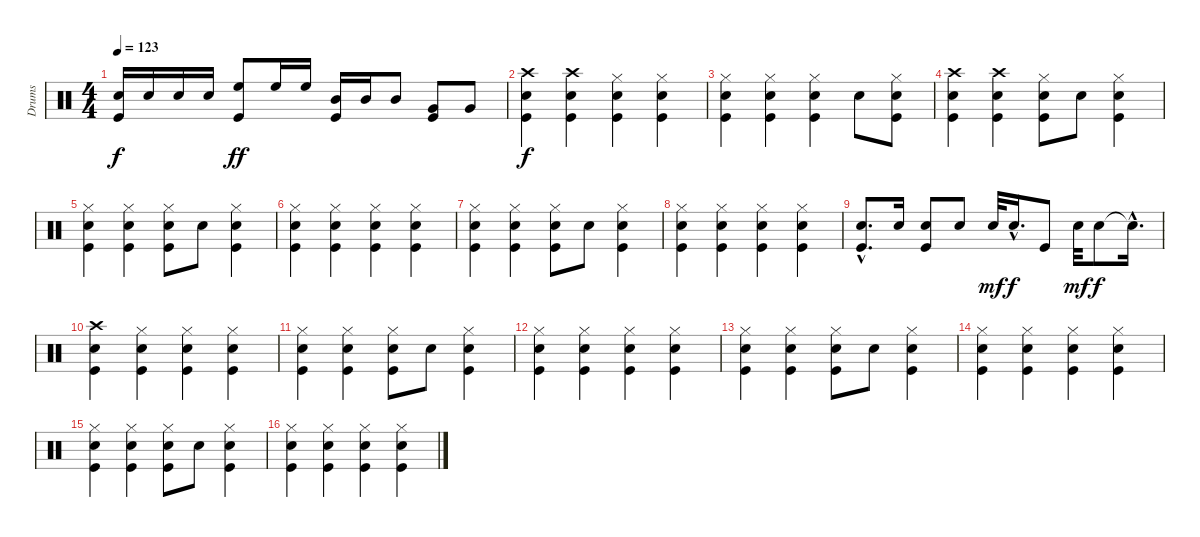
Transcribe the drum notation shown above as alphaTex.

\track ("Drums" "Drums") {instrument percussion}
\staff {score}
\articulation defaults
\ts (4 4)
\tempo 123
\clef neutral
\ks c
("Electric Snare (hit)" "Kick (hit)").16{dy f} "Electric Snare (hit)".16 "Electric Snare (hit)".16 "Electric Snare (hit)".16 ("High Floor Tom (hit)" "Kick (hit)").8{dy ff} "High Floor Tom (hit)".16 "High Floor Tom (hit)".16 ("Mid Tom (hit)" "Kick (hit)").16 "Mid Tom (hit)".16 "Mid Tom (hit)".8 ("Very Low Tom (hit)" "Kick (hit)").8 "Very Low Tom (hit)".8 |
("Crash high (hit)" "Kick (hit)" "Electric Snare (hit)").4{dy f} ("Crash high (hit)" "Kick (hit)" "Electric Snare (hit)").4 ("Kick (hit)" "Electric Snare (hit)" "Hi-Hat (closed)").4 ("Kick (hit)" "Electric Snare (hit)" "Hi-Hat (closed)").4 |
("Electric Snare (hit)" "Kick (hit)" "Hi-Hat (closed)").4 ("Kick (hit)" "Electric Snare (hit)" "Hi-Hat (closed)").4 ("Kick (hit)" "Electric Snare (hit)" "Hi-Hat (closed)").4 "Electric Snare (hit)".8 ("Kick (hit)" "Electric Snare (hit)" "Hi-Hat (closed)").8 |
("Crash high (hit)" "Electric Snare (hit)" "Kick (hit)").4 ("Crash high (hit)" "Kick (hit)" "Electric Snare (hit)").4 ("Kick (hit)" "Electric Snare (hit)" "Hi-Hat (closed)").8 "Electric Snare (hit)".8 ("Kick (hit)" "Electric Snare (hit)" "Hi-Hat (closed)").4 |
("Electric Snare (hit)" "Kick (hit)" "Hi-Hat (closed)").4 ("Kick (hit)" "Electric Snare (hit)" "Hi-Hat (closed)").4 ("Kick (hit)" "Electric Snare (hit)" "Hi-Hat (closed)").8 "Electric Snare (hit)".8 ("Kick (hit)" "Electric Snare (hit)" "Hi-Hat (closed)").4 |
("Kick (hit)" "Electric Snare (hit)" "Hi-Hat (closed)").4 ("Kick (hit)" "Electric Snare (hit)" "Hi-Hat (closed)").4 ("Kick (hit)" "Electric Snare (hit)" "Hi-Hat (closed)").4 ("Kick (hit)" "Electric Snare (hit)" "Hi-Hat (closed)").4 |
("Electric Snare (hit)" "Kick (hit)" "Hi-Hat (closed)").4 ("Kick (hit)" "Electric Snare (hit)" "Hi-Hat (closed)").4 ("Kick (hit)" "Electric Snare (hit)" "Hi-Hat (closed)").8 "Electric Snare (hit)".8 ("Kick (hit)" "Electric Snare (hit)" "Hi-Hat (closed)").4 |
("Kick (hit)" "Electric Snare (hit)" "Hi-Hat (closed)").4 ("Kick (hit)" "Electric Snare (hit)" "Hi-Hat (closed)").4 ("Kick (hit)" "Electric Snare (hit)" "Hi-Hat (closed)").4 ("Kick (hit)" "Electric Snare (hit)" "Hi-Hat (closed)").4 |
("Kick (hit)"{hac} "Electric Snare (hit)"{hac}).8{d} "Electric Snare (hit)".16 ("Kick (hit)" "Electric Snare (hit)").8 "Electric Snare (hit)".8 "Electric Snare (hit)".32{dy mf} "Electric Snare (hit)"{hac}.16{d dy f} "Kick (hit)".8 "Electric Snare (hit)".32{dy mf} "Electric Snare (hit)".8{dy f} "Snare (hit)"{hac t}.16{d} |
("Crash high (hit)" "Kick (hit)" "Electric Snare (hit)").4 ("Hi-Hat (closed)" "Kick (hit)" "Electric Snare (hit)").4 ("Hi-Hat (closed)" "Kick (hit)" "Electric Snare (hit)").4 ("Hi-Hat (closed)" "Kick (hit)" "Electric Snare (hit)").4 |
("Electric Snare (hit)" "Kick (hit)" "Hi-Hat (closed)").4 ("Kick (hit)" "Electric Snare (hit)" "Hi-Hat (closed)").4 ("Kick (hit)" "Electric Snare (hit)" "Hi-Hat (closed)").8 "Electric Snare (hit)".8 ("Kick (hit)" "Electric Snare (hit)" "Hi-Hat (closed)").4 |
("Kick (hit)" "Electric Snare (hit)" "Hi-Hat (closed)").4 ("Kick (hit)" "Electric Snare (hit)" "Hi-Hat (closed)").4 ("Kick (hit)" "Electric Snare (hit)" "Hi-Hat (closed)").4 ("Kick (hit)" "Electric Snare (hit)" "Hi-Hat (closed)").4 |
("Electric Snare (hit)" "Kick (hit)" "Hi-Hat (closed)").4 ("Kick (hit)" "Electric Snare (hit)" "Hi-Hat (closed)").4 ("Kick (hit)" "Electric Snare (hit)" "Hi-Hat (closed)").8 "Electric Snare (hit)".8 ("Kick (hit)" "Electric Snare (hit)" "Hi-Hat (closed)").4 |
("Kick (hit)" "Electric Snare (hit)" "Hi-Hat (closed)").4 ("Kick (hit)" "Electric Snare (hit)" "Hi-Hat (closed)").4 ("Kick (hit)" "Electric Snare (hit)" "Hi-Hat (closed)").4 ("Kick (hit)" "Electric Snare (hit)" "Hi-Hat (closed)").4 |
("Electric Snare (hit)" "Kick (hit)" "Hi-Hat (closed)").4 ("Kick (hit)" "Electric Snare (hit)" "Hi-Hat (closed)").4 ("Kick (hit)" "Electric Snare (hit)" "Hi-Hat (closed)").8 "Electric Snare (hit)".8 ("Kick (hit)" "Electric Snare (hit)" "Hi-Hat (closed)").4 |
("Kick (hit)" "Electric Snare (hit)" "Hi-Hat (closed)").4 ("Kick (hit)" "Electric Snare (hit)" "Hi-Hat (closed)").4 ("Kick (hit)" "Electric Snare (hit)" "Hi-Hat (closed)").4 ("Kick (hit)" "Electric Snare (hit)" "Hi-Hat (closed)").4
